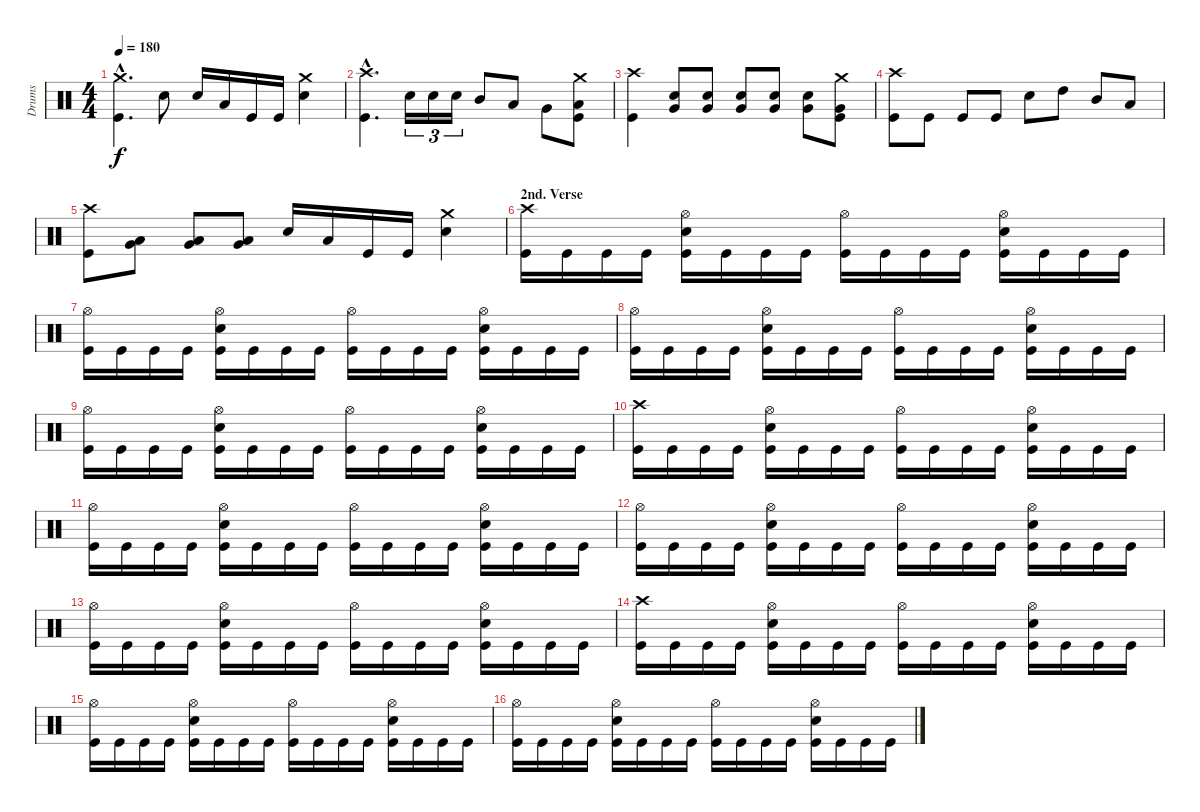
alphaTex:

\track ("Drums" "Drums") {instrument percussion}
\staff {score}
\articulation defaults
\ts (4 4)
\tempo 180
\clef neutral
\ks c
("Crash medium (hit)"{hac} "Kick (hit)"{hac}).4{d dy f} "Electric Snare (hit)".8 "Electric Snare (hit)".16 "Low Tom (hit)".16 "Kick (hit)".16 "Kick (hit)".16 ("Crash medium (hit)" "Electric Snare (hit)").4 |
("Crash high (hit)"{hac} "Kick (hit)"{hac}).4{d} "Electric Snare (hit)".16{tu (3 2)} "Electric Snare (hit)".16{tu (3 2)} "Electric Snare (hit)".16{tu (3 2)} "Mid Tom (hit)".8 "Low Tom (hit)".8 "Very Low Tom (hit)".8 ("Crash medium (hit)" "Low Floor Tom (hit)" "Kick (hit)").8 |
("Crash high (hit)" "Kick (hit)").4 ("Very Low Tom (hit)" "Electric Snare (hit)").8 ("Very Low Tom (hit)" "Electric Snare (hit)").8 ("Very Low Tom (hit)" "Electric Snare (hit)").8 ("Very Low Tom (hit)" "Electric Snare (hit)").8 ("Very Low Tom (hit)" "Electric Snare (hit)").8 ("Crash medium (hit)" "Very Low Tom (hit)" "Kick (hit)").8 |
("Crash high (hit)" "Kick (hit)").8 "Kick (hit)".8 "Kick (hit)".8 "Kick (hit)".8 "Electric Snare (hit)".8 "High Tom (hit)".8 "Mid Tom (hit)".8 "Low Tom (hit)".8 |
("Crash high (hit)" "Kick (hit)").8 ("Very Low Tom (hit)" "Low Tom (hit)").8 ("Very Low Tom (hit)" "Low Tom (hit)").8 ("Very Low Tom (hit)" "Low Tom (hit)").8 "Electric Snare (hit)".16 "Low Tom (hit)".16 "Kick (hit)".16 "Kick (hit)".16 ("Crash medium (hit)" "Electric Snare (hit)").4 |
\section ("" "2nd. Verse")
("Crash high (hit)" "Kick (hit)").16 "Kick (hit)".16 "Kick (hit)".16 "Kick (hit)".16 ("Hi-Hat (open)" "Electric Snare (hit)" "Kick (hit)").16 "Kick (hit)".16 "Kick (hit)".16 "Kick (hit)".16 ("Hi-Hat (open)" "Kick (hit)").16 "Kick (hit)".16 "Kick (hit)".16 "Kick (hit)".16 ("Hi-Hat (open)" "Electric Snare (hit)" "Kick (hit)").16 "Kick (hit)".16 "Kick (hit)".16 "Kick (hit)".16 |
("Hi-Hat (open)" "Kick (hit)").16 "Kick (hit)".16 "Kick (hit)".16 "Kick (hit)".16 ("Hi-Hat (open)" "Electric Snare (hit)" "Kick (hit)").16 "Kick (hit)".16 "Kick (hit)".16 "Kick (hit)".16 ("Hi-Hat (open)" "Kick (hit)").16 "Kick (hit)".16 "Kick (hit)".16 "Kick (hit)".16 ("Hi-Hat (open)" "Electric Snare (hit)" "Kick (hit)").16 "Kick (hit)".16 "Kick (hit)".16 "Kick (hit)".16 |
("Hi-Hat (open)" "Kick (hit)").16 "Kick (hit)".16 "Kick (hit)".16 "Kick (hit)".16 ("Hi-Hat (open)" "Electric Snare (hit)" "Kick (hit)").16 "Kick (hit)".16 "Kick (hit)".16 "Kick (hit)".16 ("Hi-Hat (open)" "Kick (hit)").16 "Kick (hit)".16 "Kick (hit)".16 "Kick (hit)".16 ("Hi-Hat (open)" "Electric Snare (hit)" "Kick (hit)").16 "Kick (hit)".16 "Kick (hit)".16 "Kick (hit)".16 |
("Hi-Hat (open)" "Kick (hit)").16 "Kick (hit)".16 "Kick (hit)".16 "Kick (hit)".16 ("Hi-Hat (open)" "Electric Snare (hit)" "Kick (hit)").16 "Kick (hit)".16 "Kick (hit)".16 "Kick (hit)".16 ("Hi-Hat (open)" "Kick (hit)").16 "Kick (hit)".16 "Kick (hit)".16 "Kick (hit)".16 ("Hi-Hat (open)" "Electric Snare (hit)" "Kick (hit)").16 "Kick (hit)".16 "Kick (hit)".16 "Kick (hit)".16 |
("Crash high (hit)" "Kick (hit)").16 "Kick (hit)".16 "Kick (hit)".16 "Kick (hit)".16 ("Hi-Hat (open)" "Electric Snare (hit)" "Kick (hit)").16 "Kick (hit)".16 "Kick (hit)".16 "Kick (hit)".16 ("Hi-Hat (open)" "Kick (hit)").16 "Kick (hit)".16 "Kick (hit)".16 "Kick (hit)".16 ("Hi-Hat (open)" "Electric Snare (hit)" "Kick (hit)").16 "Kick (hit)".16 "Kick (hit)".16 "Kick (hit)".16 |
("Hi-Hat (open)" "Kick (hit)").16 "Kick (hit)".16 "Kick (hit)".16 "Kick (hit)".16 ("Hi-Hat (open)" "Electric Snare (hit)" "Kick (hit)").16 "Kick (hit)".16 "Kick (hit)".16 "Kick (hit)".16 ("Hi-Hat (open)" "Kick (hit)").16 "Kick (hit)".16 "Kick (hit)".16 "Kick (hit)".16 ("Hi-Hat (open)" "Electric Snare (hit)" "Kick (hit)").16 "Kick (hit)".16 "Kick (hit)".16 "Kick (hit)".16 |
("Hi-Hat (open)" "Kick (hit)").16 "Kick (hit)".16 "Kick (hit)".16 "Kick (hit)".16 ("Hi-Hat (open)" "Electric Snare (hit)" "Kick (hit)").16 "Kick (hit)".16 "Kick (hit)".16 "Kick (hit)".16 ("Hi-Hat (open)" "Kick (hit)").16 "Kick (hit)".16 "Kick (hit)".16 "Kick (hit)".16 ("Hi-Hat (open)" "Electric Snare (hit)" "Kick (hit)").16 "Kick (hit)".16 "Kick (hit)".16 "Kick (hit)".16 |
("Hi-Hat (open)" "Kick (hit)").16 "Kick (hit)".16 "Kick (hit)".16 "Kick (hit)".16 ("Hi-Hat (open)" "Electric Snare (hit)" "Kick (hit)").16 "Kick (hit)".16 "Kick (hit)".16 "Kick (hit)".16 ("Hi-Hat (open)" "Kick (hit)").16 "Kick (hit)".16 "Kick (hit)".16 "Kick (hit)".16 ("Hi-Hat (open)" "Electric Snare (hit)" "Kick (hit)").16 "Kick (hit)".16 "Kick (hit)".16 "Kick (hit)".16 |
("Crash high (hit)" "Kick (hit)").16 "Kick (hit)".16 "Kick (hit)".16 "Kick (hit)".16 ("Hi-Hat (open)" "Electric Snare (hit)" "Kick (hit)").16 "Kick (hit)".16 "Kick (hit)".16 "Kick (hit)".16 ("Hi-Hat (open)" "Kick (hit)").16 "Kick (hit)".16 "Kick (hit)".16 "Kick (hit)".16 ("Hi-Hat (open)" "Electric Snare (hit)" "Kick (hit)").16 "Kick (hit)".16 "Kick (hit)".16 "Kick (hit)".16 |
("Hi-Hat (open)" "Kick (hit)").16 "Kick (hit)".16 "Kick (hit)".16 "Kick (hit)".16 ("Hi-Hat (open)" "Electric Snare (hit)" "Kick (hit)").16 "Kick (hit)".16 "Kick (hit)".16 "Kick (hit)".16 ("Hi-Hat (open)" "Kick (hit)").16 "Kick (hit)".16 "Kick (hit)".16 "Kick (hit)".16 ("Hi-Hat (open)" "Electric Snare (hit)" "Kick (hit)").16 "Kick (hit)".16 "Kick (hit)".16 "Kick (hit)".16 |
("Hi-Hat (open)" "Kick (hit)").16 "Kick (hit)".16 "Kick (hit)".16 "Kick (hit)".16 ("Hi-Hat (open)" "Electric Snare (hit)" "Kick (hit)").16 "Kick (hit)".16 "Kick (hit)".16 "Kick (hit)".16 ("Hi-Hat (open)" "Kick (hit)").16 "Kick (hit)".16 "Kick (hit)".16 "Kick (hit)".16 ("Hi-Hat (open)" "Electric Snare (hit)" "Kick (hit)").16 "Kick (hit)".16 "Kick (hit)".16 "Kick (hit)".16
